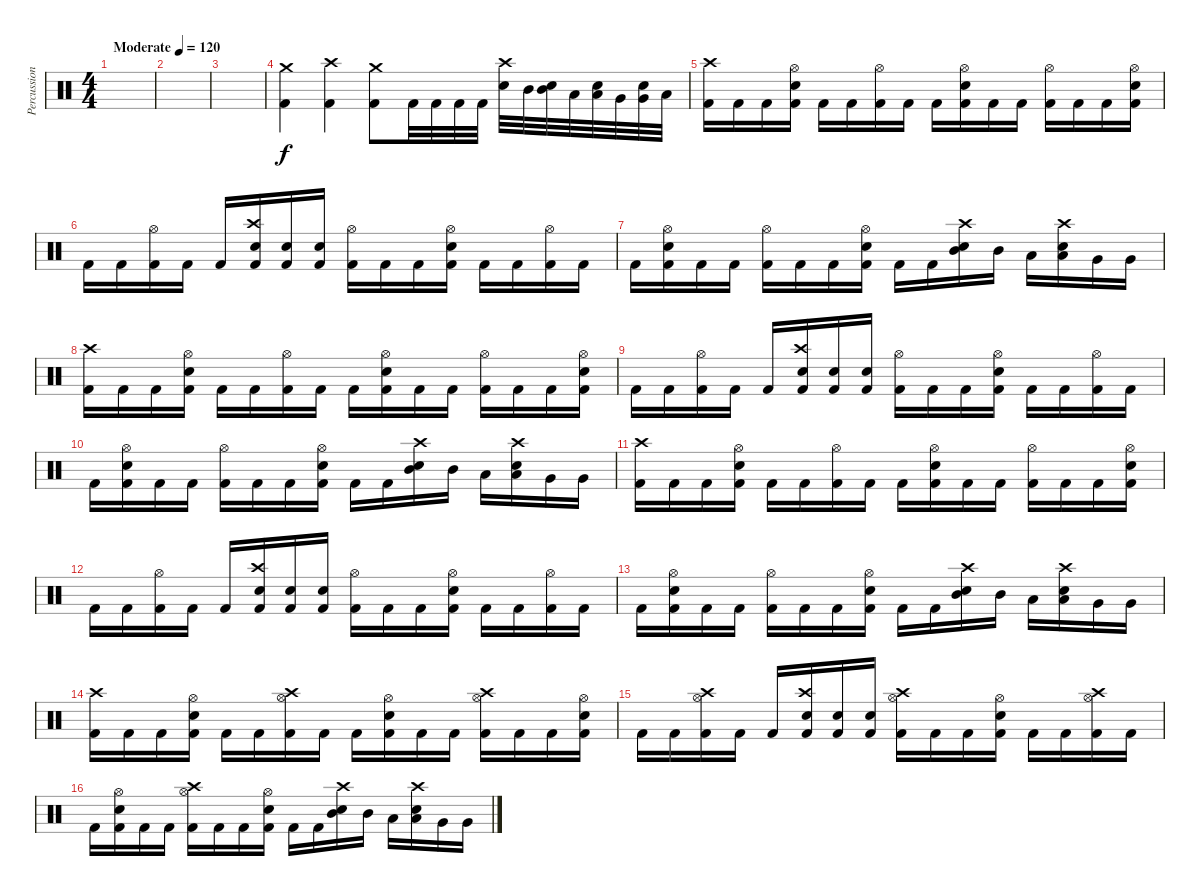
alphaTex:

\track ("Percussion" "Percussion") {instrument percussion}
\staff {score}
\articulation defaults
\ts (4 4)
\tempo (120 "Moderate")
\clef neutral
\ks c
|
|
|
("Crash medium (hit)" "Kick (hit) 2").4 ("Crash high (hit)" "Kick (hit) 2").4 ("Crash medium (hit)" "Kick (hit) 2").8 "Kick (hit) 2".32 "Kick (hit) 2".32 "Kick (hit) 2".32 "Kick (hit) 2".32 ("Crash high (hit)" "Snare (hit) 2").32 "Mid Tom (hit)".32 ("Mid Tom (hit)" "Snare (hit) 2").32 "Low Tom (hit)".32 ("Low Tom (hit)" "Snare (hit) 2").32 "Very Low Tom (hit)".32 ("Very Low Tom (hit)" "Snare (hit) 2").32 "Low Floor Tom (hit)".32 |
("Crash high (hit)" "Kick (hit) 2").16 "Kick (hit) 2".16 "Kick (hit) 2".16 ("Hi-Hat (open)" "Snare (hit) 2" "Kick (hit) 2").16 "Kick (hit) 2".16 "Kick (hit) 2".16 ("Hi-Hat (open)" "Kick (hit) 2").16 "Kick (hit) 2".16 "Kick (hit) 2".16 ("Hi-Hat (open)" "Snare (hit) 2" "Kick (hit) 2").16 "Kick (hit) 2".16 "Kick (hit) 2".16 ("Hi-Hat (open)" "Kick (hit) 2").16 "Kick (hit) 2".16 "Kick (hit) 2".16 ("Hi-Hat (open)" "Snare (hit) 2" "Kick (hit) 2").16 |
"Kick (hit) 2".16 "Kick (hit) 2".16 ("Hi-Hat (open)" "Kick (hit) 2").16 "Kick (hit) 2".16 "Kick (hit) 2".16 ("Crash high (hit)" "Snare (hit) 2" "Kick (hit) 2").16 ("Snare (hit) 2" "Kick (hit) 2").16 ("Snare (hit) 2" "Kick (hit) 2").16 ("Hi-Hat (open)" "Kick (hit) 2").16 "Kick (hit) 2".16 "Kick (hit) 2".16 ("Hi-Hat (open)" "Snare (hit) 2" "Kick (hit) 2").16 "Kick (hit) 2".16 "Kick (hit) 2".16 ("Hi-Hat (open)" "Kick (hit) 2").16 "Kick (hit) 2".16 |
"Kick (hit) 2".16 ("Hi-Hat (open)" "Snare (hit) 2" "Kick (hit) 2").16 "Kick (hit) 2".16 "Kick (hit) 2".16 ("Hi-Hat (open)" "Kick (hit) 2").16 "Kick (hit) 2".16 "Kick (hit) 2".16 ("Hi-Hat (open)" "Snare (hit) 2" "Kick (hit) 2").16 "Kick (hit) 2".16 "Kick (hit) 2".16 ("Mid Tom (hit)" "Crash high (hit)" "Snare (hit) 2").16 "Mid Tom (hit)".16 "Low Tom (hit)".16 ("Low Tom (hit)" "Crash high (hit)" "Snare (hit) 2").16 "Very Low Tom (hit)".16 "Very Low Tom (hit)".16 |
("Crash high (hit)" "Kick (hit) 2").16 "Kick (hit) 2".16 "Kick (hit) 2".16 ("Hi-Hat (open)" "Snare (hit) 2" "Kick (hit) 2").16 "Kick (hit) 2".16 "Kick (hit) 2".16 ("Hi-Hat (open)" "Kick (hit) 2").16 "Kick (hit) 2".16 "Kick (hit) 2".16 ("Hi-Hat (open)" "Snare (hit) 2" "Kick (hit) 2").16 "Kick (hit) 2".16 "Kick (hit) 2".16 ("Hi-Hat (open)" "Kick (hit) 2").16 "Kick (hit) 2".16 "Kick (hit) 2".16 ("Hi-Hat (open)" "Snare (hit) 2" "Kick (hit) 2").16 |
"Kick (hit) 2".16 "Kick (hit) 2".16 ("Hi-Hat (open)" "Kick (hit) 2").16 "Kick (hit) 2".16 "Kick (hit) 2".16 ("Crash high (hit)" "Snare (hit) 2" "Kick (hit) 2").16 ("Snare (hit) 2" "Kick (hit) 2").16 ("Snare (hit) 2" "Kick (hit) 2").16 ("Hi-Hat (open)" "Kick (hit) 2").16 "Kick (hit) 2".16 "Kick (hit) 2".16 ("Hi-Hat (open)" "Snare (hit) 2" "Kick (hit) 2").16 "Kick (hit) 2".16 "Kick (hit) 2".16 ("Hi-Hat (open)" "Kick (hit) 2").16 "Kick (hit) 2".16 |
"Kick (hit) 2".16 ("Hi-Hat (open)" "Snare (hit) 2" "Kick (hit) 2").16 "Kick (hit) 2".16 "Kick (hit) 2".16 ("Hi-Hat (open)" "Kick (hit) 2").16 "Kick (hit) 2".16 "Kick (hit) 2".16 ("Hi-Hat (open)" "Snare (hit) 2" "Kick (hit) 2").16 "Kick (hit) 2".16 "Kick (hit) 2".16 ("Mid Tom (hit)" "Crash high (hit)" "Snare (hit) 2").16 "Mid Tom (hit)".16 "Low Tom (hit)".16 ("Low Tom (hit)" "Crash high (hit)" "Snare (hit) 2").16 "Very Low Tom (hit)".16 "Very Low Tom (hit)".16 |
("Crash high (hit)" "Kick (hit) 2").16 "Kick (hit) 2".16 "Kick (hit) 2".16 ("Hi-Hat (open)" "Snare (hit) 2" "Kick (hit) 2").16 "Kick (hit) 2".16 "Kick (hit) 2".16 ("Hi-Hat (open)" "Kick (hit) 2").16 "Kick (hit) 2".16 "Kick (hit) 2".16 ("Hi-Hat (open)" "Snare (hit) 2" "Kick (hit) 2").16 "Kick (hit) 2".16 "Kick (hit) 2".16 ("Hi-Hat (open)" "Kick (hit) 2").16 "Kick (hit) 2".16 "Kick (hit) 2".16 ("Hi-Hat (open)" "Snare (hit) 2" "Kick (hit) 2").16 |
"Kick (hit) 2".16 "Kick (hit) 2".16 ("Hi-Hat (open)" "Kick (hit) 2").16 "Kick (hit) 2".16 "Kick (hit) 2".16 ("Crash high (hit)" "Snare (hit) 2" "Kick (hit) 2").16 ("Snare (hit) 2" "Kick (hit) 2").16 ("Snare (hit) 2" "Kick (hit) 2").16 ("Hi-Hat (open)" "Kick (hit) 2").16 "Kick (hit) 2".16 "Kick (hit) 2".16 ("Hi-Hat (open)" "Snare (hit) 2" "Kick (hit) 2").16 "Kick (hit) 2".16 "Kick (hit) 2".16 ("Hi-Hat (open)" "Kick (hit) 2").16 "Kick (hit) 2".16 |
"Kick (hit) 2".16 ("Hi-Hat (open)" "Snare (hit) 2" "Kick (hit) 2").16 "Kick (hit) 2".16 "Kick (hit) 2".16 ("Hi-Hat (open)" "Kick (hit) 2").16 "Kick (hit) 2".16 "Kick (hit) 2".16 ("Hi-Hat (open)" "Snare (hit) 2" "Kick (hit) 2").16 "Kick (hit) 2".16 "Kick (hit) 2".16 ("Mid Tom (hit)" "Crash high (hit)" "Snare (hit) 2").16 "Mid Tom (hit)".16 "Low Tom (hit)".16 ("Low Tom (hit)" "Crash high (hit)" "Snare (hit) 2").16 "Very Low Tom (hit)".16 "Very Low Tom (hit)".16 |
("Crash high (hit)" "Kick (hit) 2").16 "Kick (hit) 2".16 "Kick (hit) 2".16 ("Hi-Hat (open)" "Snare (hit) 2" "Kick (hit) 2").16 "Kick (hit) 2".16 "Kick (hit) 2".16 ("Crash high (hit)" "Hi-Hat (open)" "Kick (hit) 2").16 "Kick (hit) 2".16 "Kick (hit) 2".16 ("Hi-Hat (open)" "Snare (hit) 2" "Kick (hit) 2").16 "Kick (hit) 2".16 "Kick (hit) 2".16 ("Crash high (hit)" "Hi-Hat (open)" "Kick (hit) 2").16 "Kick (hit) 2".16 "Kick (hit) 2".16 ("Hi-Hat (open)" "Snare (hit) 2" "Kick (hit) 2").16 |
"Kick (hit) 2".16 "Kick (hit) 2".16 ("Crash high (hit)" "Hi-Hat (open)" "Kick (hit) 2").16 "Kick (hit) 2".16 "Kick (hit) 2".16 ("Crash high (hit)" "Snare (hit) 2" "Kick (hit) 2").16 ("Snare (hit) 2" "Kick (hit) 2").16 ("Snare (hit) 2" "Kick (hit) 2").16 ("Crash high (hit)" "Hi-Hat (open)" "Kick (hit) 2").16 "Kick (hit) 2".16 "Kick (hit) 2".16 ("Hi-Hat (open)" "Snare (hit) 2" "Kick (hit) 2").16 "Kick (hit) 2".16 "Kick (hit) 2".16 ("Crash high (hit)" "Hi-Hat (open)" "Kick (hit) 2").16 "Kick (hit) 2".16 |
"Kick (hit) 2".16 ("Hi-Hat (open)" "Snare (hit) 2" "Kick (hit) 2").16 "Kick (hit) 2".16 "Kick (hit) 2".16 ("Crash high (hit)" "Hi-Hat (open)" "Kick (hit) 2").16 "Kick (hit) 2".16 "Kick (hit) 2".16 ("Hi-Hat (open)" "Snare (hit) 2" "Kick (hit) 2").16 "Kick (hit) 2".16 "Kick (hit) 2".16 ("Mid Tom (hit)" "Crash high (hit)" "Snare (hit) 2").16 "Mid Tom (hit)".16 "Low Tom (hit)".16 ("Low Tom (hit)" "Crash high (hit)" "Snare (hit) 2").16 "Very Low Tom (hit)".16 "Very Low Tom (hit)".16
